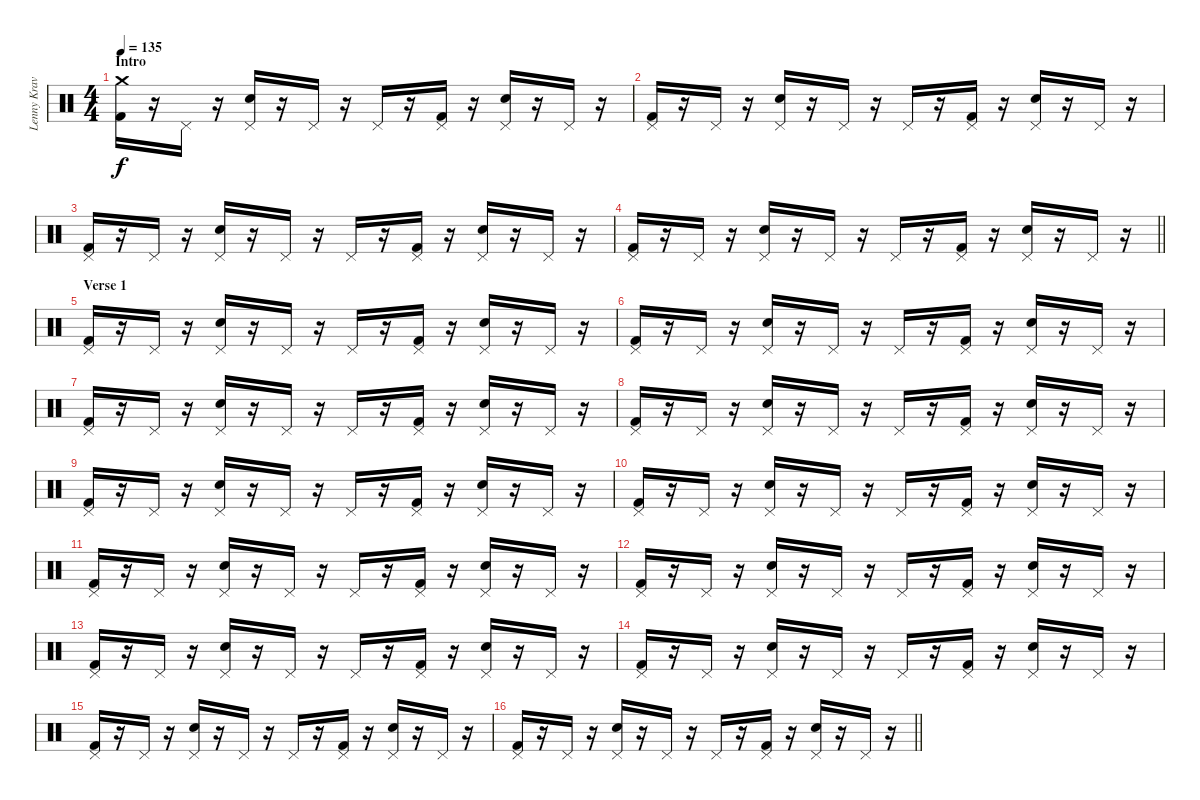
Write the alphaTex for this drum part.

\track ("Lenny Kravitz (drums)" "Lenny Krav") {instrument percussion}
\staff {score}
\articulation defaults
\ts (4 4)
\section ("" "Intro")
\tempo 135
\clef neutral
\ks c
("Crash medium (hit)" "Kick (hit) 2").16{dy f} r.16 "Pedal Hi-Hat (hit)".16 r.16 ("Pedal Hi-Hat (hit)" "Electric Snare (hit)").16 r.16 "Pedal Hi-Hat (hit)".16 r.16 "Pedal Hi-Hat (hit)".16 r.16 ("Pedal Hi-Hat (hit)" "Kick (hit) 2").16 r.16 ("Pedal Hi-Hat (hit)" "Electric Snare (hit)").16 r.16 "Pedal Hi-Hat (hit)".16 r.16 |
("Pedal Hi-Hat (hit)" "Kick (hit) 2").16 r.16 "Pedal Hi-Hat (hit)".16 r.16 ("Pedal Hi-Hat (hit)" "Electric Snare (hit)").16 r.16 "Pedal Hi-Hat (hit)".16 r.16 "Pedal Hi-Hat (hit)".16 r.16 ("Pedal Hi-Hat (hit)" "Kick (hit) 2").16 r.16 ("Pedal Hi-Hat (hit)" "Electric Snare (hit)").16 r.16 "Pedal Hi-Hat (hit)".16 r.16 |
("Pedal Hi-Hat (hit)" "Kick (hit) 2").16 r.16 "Pedal Hi-Hat (hit)".16 r.16 ("Pedal Hi-Hat (hit)" "Electric Snare (hit)").16 r.16 "Pedal Hi-Hat (hit)".16 r.16 "Pedal Hi-Hat (hit)".16 r.16 ("Pedal Hi-Hat (hit)" "Kick (hit) 2").16 r.16 ("Pedal Hi-Hat (hit)" "Electric Snare (hit)").16 r.16 "Pedal Hi-Hat (hit)".16 r.16 |
\barLineRight lightlight
("Pedal Hi-Hat (hit)" "Kick (hit) 2").16 r.16 "Pedal Hi-Hat (hit)".16 r.16 ("Pedal Hi-Hat (hit)" "Electric Snare (hit)").16 r.16 "Pedal Hi-Hat (hit)".16 r.16 "Pedal Hi-Hat (hit)".16 r.16 ("Pedal Hi-Hat (hit)" "Kick (hit) 2").16 r.16 ("Pedal Hi-Hat (hit)" "Electric Snare (hit)").16 r.16 "Pedal Hi-Hat (hit)".16 r.16 |
\section ("" "Verse 1")
("Pedal Hi-Hat (hit)" "Kick (hit) 2").16 r.16 "Pedal Hi-Hat (hit)".16 r.16 ("Pedal Hi-Hat (hit)" "Electric Snare (hit)").16 r.16 "Pedal Hi-Hat (hit)".16 r.16 "Pedal Hi-Hat (hit)".16 r.16 ("Pedal Hi-Hat (hit)" "Kick (hit) 2").16 r.16 ("Pedal Hi-Hat (hit)" "Electric Snare (hit)").16 r.16 "Pedal Hi-Hat (hit)".16 r.16 |
("Pedal Hi-Hat (hit)" "Kick (hit) 2").16 r.16 "Pedal Hi-Hat (hit)".16 r.16 ("Pedal Hi-Hat (hit)" "Electric Snare (hit)").16 r.16 "Pedal Hi-Hat (hit)".16 r.16 "Pedal Hi-Hat (hit)".16 r.16 ("Pedal Hi-Hat (hit)" "Kick (hit) 2").16 r.16 ("Pedal Hi-Hat (hit)" "Electric Snare (hit)").16 r.16 "Pedal Hi-Hat (hit)".16 r.16 |
("Pedal Hi-Hat (hit)" "Kick (hit) 2").16 r.16 "Pedal Hi-Hat (hit)".16 r.16 ("Pedal Hi-Hat (hit)" "Electric Snare (hit)").16 r.16 "Pedal Hi-Hat (hit)".16 r.16 "Pedal Hi-Hat (hit)".16 r.16 ("Pedal Hi-Hat (hit)" "Kick (hit) 2").16 r.16 ("Pedal Hi-Hat (hit)" "Electric Snare (hit)").16 r.16 "Pedal Hi-Hat (hit)".16 r.16 |
("Pedal Hi-Hat (hit)" "Kick (hit) 2").16 r.16 "Pedal Hi-Hat (hit)".16 r.16 ("Pedal Hi-Hat (hit)" "Electric Snare (hit)").16 r.16 "Pedal Hi-Hat (hit)".16 r.16 "Pedal Hi-Hat (hit)".16 r.16 ("Pedal Hi-Hat (hit)" "Kick (hit) 2").16 r.16 ("Pedal Hi-Hat (hit)" "Electric Snare (hit)").16 r.16 "Pedal Hi-Hat (hit)".16 r.16 |
("Pedal Hi-Hat (hit)" "Kick (hit) 2").16 r.16 "Pedal Hi-Hat (hit)".16 r.16 ("Pedal Hi-Hat (hit)" "Electric Snare (hit)").16 r.16 "Pedal Hi-Hat (hit)".16 r.16 "Pedal Hi-Hat (hit)".16 r.16 ("Pedal Hi-Hat (hit)" "Kick (hit) 2").16 r.16 ("Pedal Hi-Hat (hit)" "Electric Snare (hit)").16 r.16 "Pedal Hi-Hat (hit)".16 r.16 |
("Pedal Hi-Hat (hit)" "Kick (hit) 2").16 r.16 "Pedal Hi-Hat (hit)".16 r.16 ("Pedal Hi-Hat (hit)" "Electric Snare (hit)").16 r.16 "Pedal Hi-Hat (hit)".16 r.16 "Pedal Hi-Hat (hit)".16 r.16 ("Pedal Hi-Hat (hit)" "Kick (hit) 2").16 r.16 ("Pedal Hi-Hat (hit)" "Electric Snare (hit)").16 r.16 "Pedal Hi-Hat (hit)".16 r.16 |
("Pedal Hi-Hat (hit)" "Kick (hit) 2").16 r.16 "Pedal Hi-Hat (hit)".16 r.16 ("Pedal Hi-Hat (hit)" "Electric Snare (hit)").16 r.16 "Pedal Hi-Hat (hit)".16 r.16 "Pedal Hi-Hat (hit)".16 r.16 ("Pedal Hi-Hat (hit)" "Kick (hit) 2").16 r.16 ("Pedal Hi-Hat (hit)" "Electric Snare (hit)").16 r.16 "Pedal Hi-Hat (hit)".16 r.16 |
("Pedal Hi-Hat (hit)" "Kick (hit) 2").16 r.16 "Pedal Hi-Hat (hit)".16 r.16 ("Pedal Hi-Hat (hit)" "Electric Snare (hit)").16 r.16 "Pedal Hi-Hat (hit)".16 r.16 "Pedal Hi-Hat (hit)".16 r.16 ("Pedal Hi-Hat (hit)" "Kick (hit) 2").16 r.16 ("Pedal Hi-Hat (hit)" "Electric Snare (hit)").16 r.16 "Pedal Hi-Hat (hit)".16 r.16 |
("Pedal Hi-Hat (hit)" "Kick (hit) 2").16 r.16 "Pedal Hi-Hat (hit)".16 r.16 ("Pedal Hi-Hat (hit)" "Electric Snare (hit)").16 r.16 "Pedal Hi-Hat (hit)".16 r.16 "Pedal Hi-Hat (hit)".16 r.16 ("Pedal Hi-Hat (hit)" "Kick (hit) 2").16 r.16 ("Pedal Hi-Hat (hit)" "Electric Snare (hit)").16 r.16 "Pedal Hi-Hat (hit)".16 r.16 |
("Pedal Hi-Hat (hit)" "Kick (hit) 2").16 r.16 "Pedal Hi-Hat (hit)".16 r.16 ("Pedal Hi-Hat (hit)" "Electric Snare (hit)").16 r.16 "Pedal Hi-Hat (hit)".16 r.16 "Pedal Hi-Hat (hit)".16 r.16 ("Pedal Hi-Hat (hit)" "Kick (hit) 2").16 r.16 ("Pedal Hi-Hat (hit)" "Electric Snare (hit)").16 r.16 "Pedal Hi-Hat (hit)".16 r.16 |
("Pedal Hi-Hat (hit)" "Kick (hit) 2").16 r.16 "Pedal Hi-Hat (hit)".16 r.16 ("Pedal Hi-Hat (hit)" "Electric Snare (hit)").16 r.16 "Pedal Hi-Hat (hit)".16 r.16 "Pedal Hi-Hat (hit)".16 r.16 ("Pedal Hi-Hat (hit)" "Kick (hit) 2").16 r.16 ("Pedal Hi-Hat (hit)" "Electric Snare (hit)").16 r.16 "Pedal Hi-Hat (hit)".16 r.16 |
\barLineRight lightlight
("Pedal Hi-Hat (hit)" "Kick (hit) 2").16 r.16 "Pedal Hi-Hat (hit)".16 r.16 ("Pedal Hi-Hat (hit)" "Electric Snare (hit)").16 r.16 "Pedal Hi-Hat (hit)".16 r.16 "Pedal Hi-Hat (hit)".16 r.16 ("Pedal Hi-Hat (hit)" "Kick (hit) 2").16 r.16 ("Pedal Hi-Hat (hit)" "Electric Snare (hit)").16 r.16 "Pedal Hi-Hat (hit)".16 r.16
